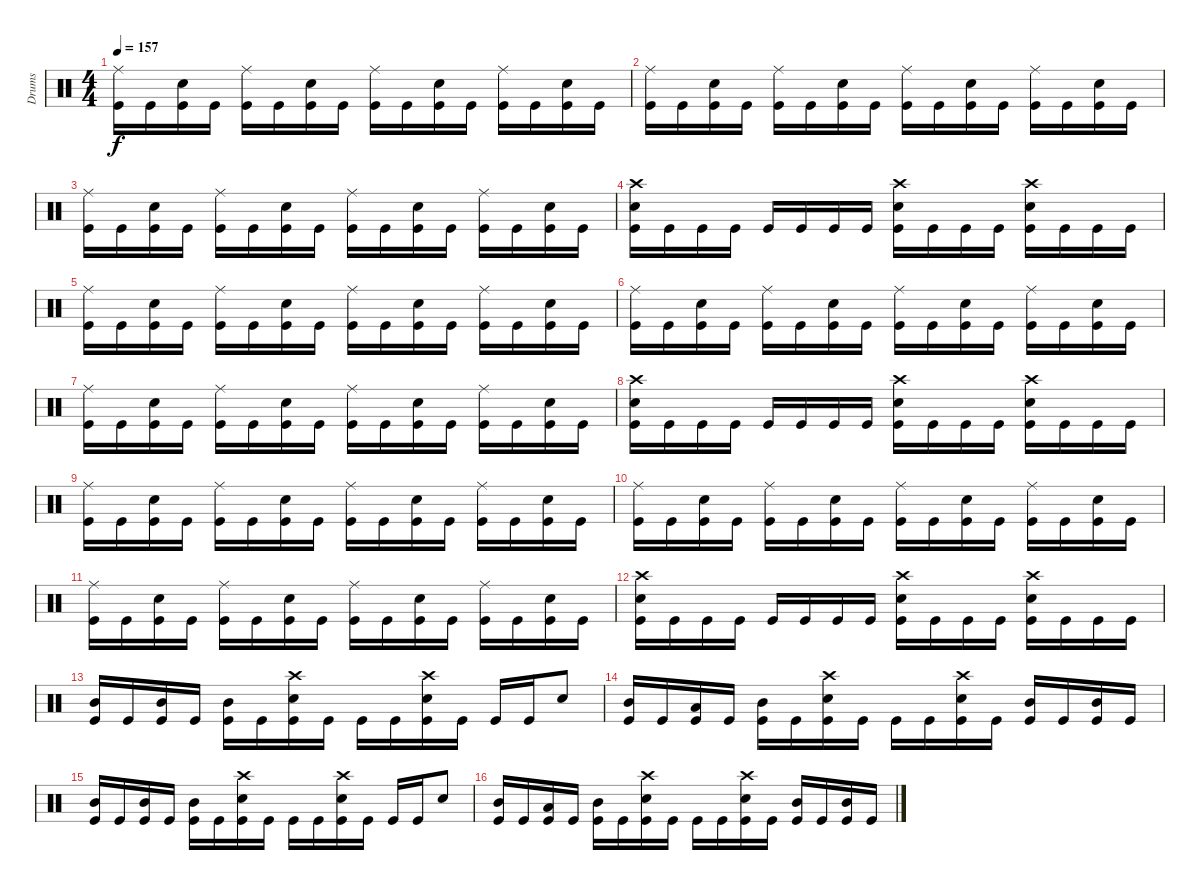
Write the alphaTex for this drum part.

\track ("Drums" "Drums") {instrument percussion}
\staff {score}
\articulation defaults
\ts (4 4)
\tempo 157
\clef neutral
\ks c
("Ride (middle)" "Kick (hit)").16{dy f} "Kick (hit)".16 ("Snare (hit) 2" "Kick (hit)").16 "Kick (hit)".16 ("Ride (middle)" "Kick (hit)").16 "Kick (hit)".16 ("Snare (hit) 2" "Kick (hit)").16 "Kick (hit)".16 ("Ride (middle)" "Kick (hit)").16 "Kick (hit)".16 ("Snare (hit) 2" "Kick (hit)").16 "Kick (hit)".16 ("Ride (middle)" "Kick (hit)").16 "Kick (hit)".16 ("Snare (hit) 2" "Kick (hit)").16 "Kick (hit)".16 |
("Ride (middle)" "Kick (hit)").16 "Kick (hit)".16 ("Snare (hit) 2" "Kick (hit)").16 "Kick (hit)".16 ("Ride (middle)" "Kick (hit)").16 "Kick (hit)".16 ("Snare (hit) 2" "Kick (hit)").16 "Kick (hit)".16 ("Ride (middle)" "Kick (hit)").16 "Kick (hit)".16 ("Snare (hit) 2" "Kick (hit)").16 "Kick (hit)".16 ("Ride (middle)" "Kick (hit)").16 "Kick (hit)".16 ("Snare (hit) 2" "Kick (hit)").16 "Kick (hit)".16 |
("Ride (middle)" "Kick (hit)").16 "Kick (hit)".16 ("Snare (hit) 2" "Kick (hit)").16 "Kick (hit)".16 ("Ride (middle)" "Kick (hit)").16 "Kick (hit)".16 ("Snare (hit) 2" "Kick (hit)").16 "Kick (hit)".16 ("Ride (middle)" "Kick (hit)").16 "Kick (hit)".16 ("Snare (hit) 2" "Kick (hit)").16 "Kick (hit)".16 ("Ride (middle)" "Kick (hit)").16 "Kick (hit)".16 ("Snare (hit) 2" "Kick (hit)").16 "Kick (hit)".16 |
("Snare (hit) 2" "Crash high (hit)" "Kick (hit)").16 "Kick (hit)".16 "Kick (hit)".16 "Kick (hit)".16 "Kick (hit)".16 "Kick (hit)".16 "Kick (hit)".16 "Kick (hit)".16 ("Snare (hit) 2" "Crash high (hit)" "Kick (hit)").16 "Kick (hit)".16 "Kick (hit)".16 "Kick (hit)".16 ("Snare (hit) 2" "Crash high (hit)" "Kick (hit)").16 "Kick (hit)".16 "Kick (hit)".16 "Kick (hit)".16 |
("Ride (middle)" "Kick (hit)").16 "Kick (hit)".16 ("Snare (hit) 2" "Kick (hit)").16 "Kick (hit)".16 ("Ride (middle)" "Kick (hit)").16 "Kick (hit)".16 ("Snare (hit) 2" "Kick (hit)").16 "Kick (hit)".16 ("Ride (middle)" "Kick (hit)").16 "Kick (hit)".16 ("Snare (hit) 2" "Kick (hit)").16 "Kick (hit)".16 ("Ride (middle)" "Kick (hit)").16 "Kick (hit)".16 ("Snare (hit) 2" "Kick (hit)").16 "Kick (hit)".16 |
("Ride (middle)" "Kick (hit)").16 "Kick (hit)".16 ("Snare (hit) 2" "Kick (hit)").16 "Kick (hit)".16 ("Ride (middle)" "Kick (hit)").16 "Kick (hit)".16 ("Snare (hit) 2" "Kick (hit)").16 "Kick (hit)".16 ("Ride (middle)" "Kick (hit)").16 "Kick (hit)".16 ("Snare (hit) 2" "Kick (hit)").16 "Kick (hit)".16 ("Ride (middle)" "Kick (hit)").16 "Kick (hit)".16 ("Snare (hit) 2" "Kick (hit)").16 "Kick (hit)".16 |
("Ride (middle)" "Kick (hit)").16 "Kick (hit)".16 ("Snare (hit) 2" "Kick (hit)").16 "Kick (hit)".16 ("Ride (middle)" "Kick (hit)").16 "Kick (hit)".16 ("Snare (hit) 2" "Kick (hit)").16 "Kick (hit)".16 ("Ride (middle)" "Kick (hit)").16 "Kick (hit)".16 ("Snare (hit) 2" "Kick (hit)").16 "Kick (hit)".16 ("Ride (middle)" "Kick (hit)").16 "Kick (hit)".16 ("Snare (hit) 2" "Kick (hit)").16 "Kick (hit)".16 |
("Snare (hit) 2" "Crash high (hit)" "Kick (hit)").16 "Kick (hit)".16 "Kick (hit)".16 "Kick (hit)".16 "Kick (hit)".16 "Kick (hit)".16 "Kick (hit)".16 "Kick (hit)".16 ("Snare (hit) 2" "Crash high (hit)" "Kick (hit)").16 "Kick (hit)".16 "Kick (hit)".16 "Kick (hit)".16 ("Snare (hit) 2" "Crash high (hit)" "Kick (hit)").16 "Kick (hit)".16 "Kick (hit)".16 "Kick (hit)".16 |
("Ride (middle)" "Kick (hit)").16 "Kick (hit)".16 ("Snare (hit) 2" "Kick (hit)").16 "Kick (hit)".16 ("Ride (middle)" "Kick (hit)").16 "Kick (hit)".16 ("Snare (hit) 2" "Kick (hit)").16 "Kick (hit)".16 ("Ride (middle)" "Kick (hit)").16 "Kick (hit)".16 ("Snare (hit) 2" "Kick (hit)").16 "Kick (hit)".16 ("Ride (middle)" "Kick (hit)").16 "Kick (hit)".16 ("Snare (hit) 2" "Kick (hit)").16 "Kick (hit)".16 |
("Ride (middle)" "Kick (hit)").16 "Kick (hit)".16 ("Snare (hit) 2" "Kick (hit)").16 "Kick (hit)".16 ("Ride (middle)" "Kick (hit)").16 "Kick (hit)".16 ("Snare (hit) 2" "Kick (hit)").16 "Kick (hit)".16 ("Ride (middle)" "Kick (hit)").16 "Kick (hit)".16 ("Snare (hit) 2" "Kick (hit)").16 "Kick (hit)".16 ("Ride (middle)" "Kick (hit)").16 "Kick (hit)".16 ("Snare (hit) 2" "Kick (hit)").16 "Kick (hit)".16 |
("Ride (middle)" "Kick (hit)").16 "Kick (hit)".16 ("Snare (hit) 2" "Kick (hit)").16 "Kick (hit)".16 ("Ride (middle)" "Kick (hit)").16 "Kick (hit)".16 ("Snare (hit) 2" "Kick (hit)").16 "Kick (hit)".16 ("Ride (middle)" "Kick (hit)").16 "Kick (hit)".16 ("Snare (hit) 2" "Kick (hit)").16 "Kick (hit)".16 ("Ride (middle)" "Kick (hit)").16 "Kick (hit)".16 ("Snare (hit) 2" "Kick (hit)").16 "Kick (hit)".16 |
("Snare (hit) 2" "Crash high (hit)" "Kick (hit)").16 "Kick (hit)".16 "Kick (hit)".16 "Kick (hit)".16 "Kick (hit)".16 "Kick (hit)".16 "Kick (hit)".16 "Kick (hit)".16 ("Snare (hit) 2" "Crash high (hit)" "Kick (hit)").16 "Kick (hit)".16 "Kick (hit)".16 "Kick (hit)".16 ("Snare (hit) 2" "Crash high (hit)" "Kick (hit)").16 "Kick (hit)".16 "Kick (hit)".16 "Kick (hit)".16 |
("Mid Tom (hit)" "Kick (hit)").16 "Kick (hit)".16 ("Mid Tom (hit)" "Kick (hit)").16 "Kick (hit)".16 ("Mid Tom (hit)" "Kick (hit)").16 "Kick (hit)".16 ("Snare (hit) 2" "Crash high (hit)" "Kick (hit)").16 "Kick (hit)".16 "Kick (hit)".16 "Kick (hit)".16 ("Snare (hit) 2" "Crash high (hit)" "Kick (hit)").16 "Kick (hit)".16 "Kick (hit)".16 "Kick (hit)".16 "Snare (hit) 2".8 |
("Mid Tom (hit)" "Kick (hit)").16 "Kick (hit)".16 ("Low Tom (hit)" "Kick (hit)").16 "Kick (hit)".16 ("Mid Tom (hit)" "Kick (hit)").16 "Kick (hit)".16 ("Snare (hit) 2" "Crash high (hit)" "Kick (hit)").16 "Kick (hit)".16 "Kick (hit)".16 "Kick (hit)".16 ("Snare (hit) 2" "Crash high (hit)" "Kick (hit)").16 "Kick (hit)".16 ("Mid Tom (hit)" "Kick (hit)").16 "Kick (hit)".16 ("Mid Tom (hit)" "Kick (hit)").16 "Kick (hit)".16 |
("Mid Tom (hit)" "Kick (hit)").16 "Kick (hit)".16 ("Mid Tom (hit)" "Kick (hit)").16 "Kick (hit)".16 ("Mid Tom (hit)" "Kick (hit)").16 "Kick (hit)".16 ("Snare (hit) 2" "Crash high (hit)" "Kick (hit)").16 "Kick (hit)".16 "Kick (hit)".16 "Kick (hit)".16 ("Snare (hit) 2" "Crash high (hit)" "Kick (hit)").16 "Kick (hit)".16 "Kick (hit)".16 "Kick (hit)".16 "Snare (hit) 2".8 |
("Mid Tom (hit)" "Kick (hit)").16 "Kick (hit)".16 ("Low Tom (hit)" "Kick (hit)").16 "Kick (hit)".16 ("Mid Tom (hit)" "Kick (hit)").16 "Kick (hit)".16 ("Snare (hit) 2" "Crash high (hit)" "Kick (hit)").16 "Kick (hit)".16 "Kick (hit)".16 "Kick (hit)".16 ("Snare (hit) 2" "Crash high (hit)" "Kick (hit)").16 "Kick (hit)".16 ("Mid Tom (hit)" "Kick (hit)").16 "Kick (hit)".16 ("Mid Tom (hit)" "Kick (hit)").16 "Kick (hit)".16
